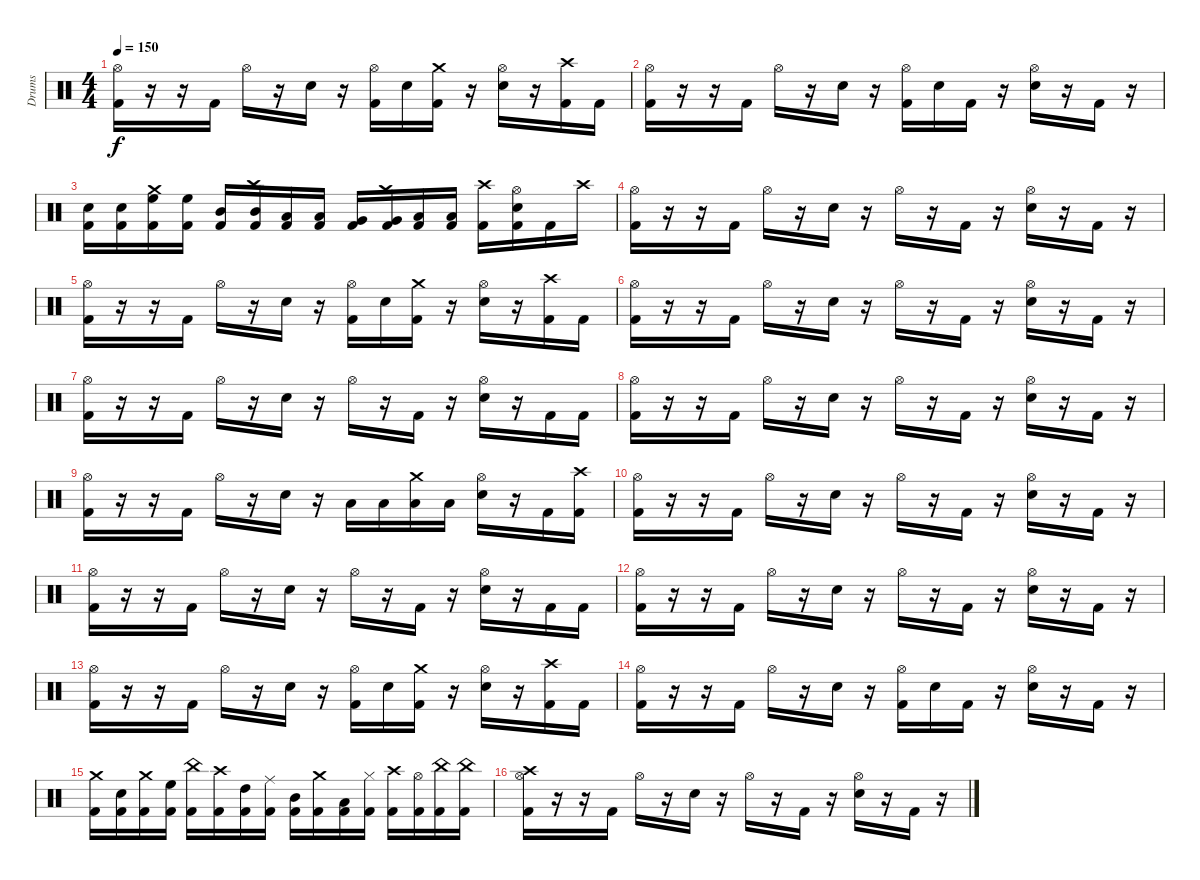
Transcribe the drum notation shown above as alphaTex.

\track ("Drums" "Drums") {instrument percussion}
\staff {score}
\articulation defaults
\ts (4 4)
\tempo 150
\clef neutral
\ks c
("Hi-Hat (open)" "Kick (hit) 2").16{dy f} r.16 r.16 "Kick (hit) 2".16 "Hi-Hat (open)".16 r.16 "Snare (hit) 2".16 r.16 ("Hi-Hat (open)" "Kick (hit) 2").16 "Snare (hit) 2".16 ("Crash medium (hit)" "Kick (hit) 2").16 r.16 ("Hi-Hat (open)" "Snare (hit) 2").16 r.16 ("Crash high (hit)" "Kick (hit) 2").16 "Kick (hit) 2".16 |
("Hi-Hat (open)" "Kick (hit) 2").16 r.16 r.16 "Kick (hit) 2".16 "Hi-Hat (open)".16 r.16 "Snare (hit) 2".16 r.16 ("Hi-Hat (open)" "Kick (hit) 2").16 "Snare (hit) 2".16 "Kick (hit) 2".16 r.16 ("Hi-Hat (open)" "Snare (hit) 2").16 r.16 "Kick (hit) 2".16 r.16 |
("Snare (hit) 2" "Kick (hit) 2").16 ("Snare (hit) 2" "Kick (hit) 2").16 ("Crash medium (hit)" "High Floor Tom (hit)" "Kick (hit) 2").16 ("High Floor Tom (hit)" "Kick (hit) 2").16 ("Mid Tom (hit)" "Kick (hit) 2").16 ("Crash high (hit)" "Mid Tom (hit)" "Kick (hit) 2").16 ("Low Tom (hit)" "Kick (hit) 2").16 ("Low Tom (hit)" "Kick (hit) 2").16 ("Very Low Tom (hit)" "Kick (hit) 2").16 ("Crash medium (hit)" "Very Low Tom (hit)" "Kick (hit) 2").16 ("Low Floor Tom (hit)" "Kick (hit) 2").16 ("Low Floor Tom (hit)" "Kick (hit) 2").16 ("Crash high (hit)" "Kick (hit) 2").16 ("Hi-Hat (open)" "Snare (hit) 2" "Kick (hit) 2").16 "Kick (hit) 2".16 "Crash high (hit)".16 |
("Hi-Hat (open)" "Kick (hit) 2").16 r.16 r.16 "Kick (hit) 2".16 "Hi-Hat (open)".16 r.16 "Snare (hit) 2".16 r.16 "Hi-Hat (open)".16 r.16 "Kick (hit) 2".16 r.16 ("Hi-Hat (open)" "Snare (hit) 2").16 r.16 "Kick (hit) 2".16 r.16 |
("Hi-Hat (open)" "Kick (hit) 2").16 r.16 r.16 "Kick (hit) 2".16 "Hi-Hat (open)".16 r.16 "Snare (hit) 2".16 r.16 ("Hi-Hat (open)" "Kick (hit) 2").16 "Snare (hit) 2".16 ("Crash medium (hit)" "Kick (hit) 2").16 r.16 ("Hi-Hat (open)" "Snare (hit) 2").16 r.16 ("Crash high (hit)" "Kick (hit) 2").16 "Kick (hit) 2".16 |
("Hi-Hat (open)" "Kick (hit) 2").16 r.16 r.16 "Kick (hit) 2".16 "Hi-Hat (open)".16 r.16 "Snare (hit) 2".16 r.16 "Hi-Hat (open)".16 r.16 "Kick (hit) 2".16 r.16 ("Hi-Hat (open)" "Snare (hit) 2").16 r.16 "Kick (hit) 2".16 r.16 |
("Hi-Hat (open)" "Kick (hit) 2").16 r.16 r.16 "Kick (hit) 2".16 "Hi-Hat (open)".16 r.16 "Snare (hit) 2".16 r.16 "Hi-Hat (open)".16 r.16 "Kick (hit) 2".16 r.16 ("Hi-Hat (open)" "Snare (hit) 2").16 r.16 "Kick (hit) 2".16 "Kick (hit) 2".16 |
("Hi-Hat (open)" "Kick (hit) 2").16 r.16 r.16 "Kick (hit) 2".16 "Hi-Hat (open)".16 r.16 "Snare (hit) 2".16 r.16 "Hi-Hat (open)".16 r.16 "Kick (hit) 2".16 r.16 ("Hi-Hat (open)" "Snare (hit) 2").16 r.16 "Kick (hit) 2".16 r.16 |
("Hi-Hat (open)" "Kick (hit) 2").16 r.16 r.16 "Kick (hit) 2".16 "Hi-Hat (open)".16 r.16 "Snare (hit) 2".16 r.16 "Low Tom (hit)".16 "Low Tom (hit)".16 ("Crash medium (hit)" "Low Floor Tom (hit)").16 "Low Floor Tom (hit)".16 ("Hi-Hat (open)" "Snare (hit) 2").16 r.16 "Kick (hit) 2".16 ("Crash high (hit)" "Kick (hit) 2").16 |
("Hi-Hat (open)" "Kick (hit) 2").16 r.16 r.16 "Kick (hit) 2".16 "Hi-Hat (open)".16 r.16 "Snare (hit) 2".16 r.16 "Hi-Hat (open)".16 r.16 "Kick (hit) 2".16 r.16 ("Hi-Hat (open)" "Snare (hit) 2").16 r.16 "Kick (hit) 2".16 r.16 |
("Hi-Hat (open)" "Kick (hit) 2").16 r.16 r.16 "Kick (hit) 2".16 "Hi-Hat (open)".16 r.16 "Snare (hit) 2".16 r.16 "Hi-Hat (open)".16 r.16 "Kick (hit) 2".16 r.16 ("Hi-Hat (open)" "Snare (hit) 2").16 r.16 "Kick (hit) 2".16 "Kick (hit) 2".16 |
("Hi-Hat (open)" "Kick (hit) 2").16 r.16 r.16 "Kick (hit) 2".16 "Hi-Hat (open)".16 r.16 "Snare (hit) 2".16 r.16 "Hi-Hat (open)".16 r.16 "Kick (hit) 2".16 r.16 ("Hi-Hat (open)" "Snare (hit) 2").16 r.16 "Kick (hit) 2".16 r.16 |
("Hi-Hat (open)" "Kick (hit) 2").16 r.16 r.16 "Kick (hit) 2".16 "Hi-Hat (open)".16 r.16 "Snare (hit) 2".16 r.16 ("Hi-Hat (open)" "Kick (hit) 2").16 "Snare (hit) 2".16 ("Crash medium (hit)" "Kick (hit) 2").16 r.16 ("Hi-Hat (open)" "Snare (hit) 2").16 r.16 ("Crash high (hit)" "Kick (hit) 2").16 "Kick (hit) 2".16 |
("Hi-Hat (open)" "Kick (hit) 2").16 r.16 r.16 "Kick (hit) 2".16 "Hi-Hat (open)".16 r.16 "Snare (hit) 2".16 r.16 ("Hi-Hat (open)" "Kick (hit) 2").16 "Snare (hit) 2".16 "Kick (hit) 2".16 r.16 ("Hi-Hat (open)" "Snare (hit) 2").16 r.16 "Kick (hit) 2".16 r.16 |
("Crash medium (hit)" "Kick (hit) 2").16 ("Snare (hit) 2" "Kick (hit) 2").16 ("Crash medium (hit)" "Kick (hit) 2").16 ("High Floor Tom (hit)" "Kick (hit) 2").16 ("China (hit)" "Kick (hit) 2").16 ("Crash high (hit)" "Kick (hit) 2").16 ("High Tom (hit)" "Kick (hit) 2").16 ("Ride (middle)" "Kick (hit) 2").16 ("Mid Tom (hit)" "Kick (hit) 2").16 ("Crash medium (hit)" "Kick (hit) 2").16 ("Low Tom (hit)" "Kick (hit) 2").16 ("Hi-Hat (closed)" "Kick (hit) 2").16 ("Crash high (hit)" "Kick (hit) 2").16 ("Hi-Hat (open)" "Kick (hit) 2").16 ("China (hit)" "Kick (hit) 2").16 ("China (hit)" "Kick (hit) 2").16 |
("Hi-Hat (open)" "Crash high (hit)" "Kick (hit) 2").16 r.16 r.16 "Kick (hit) 2".16 "Hi-Hat (open)".16 r.16 "Snare (hit) 2".16 r.16 "Hi-Hat (open)".16 r.16 "Kick (hit) 2".16 r.16 ("Hi-Hat (open)" "Snare (hit) 2").16 r.16 "Kick (hit) 2".16 r.16
